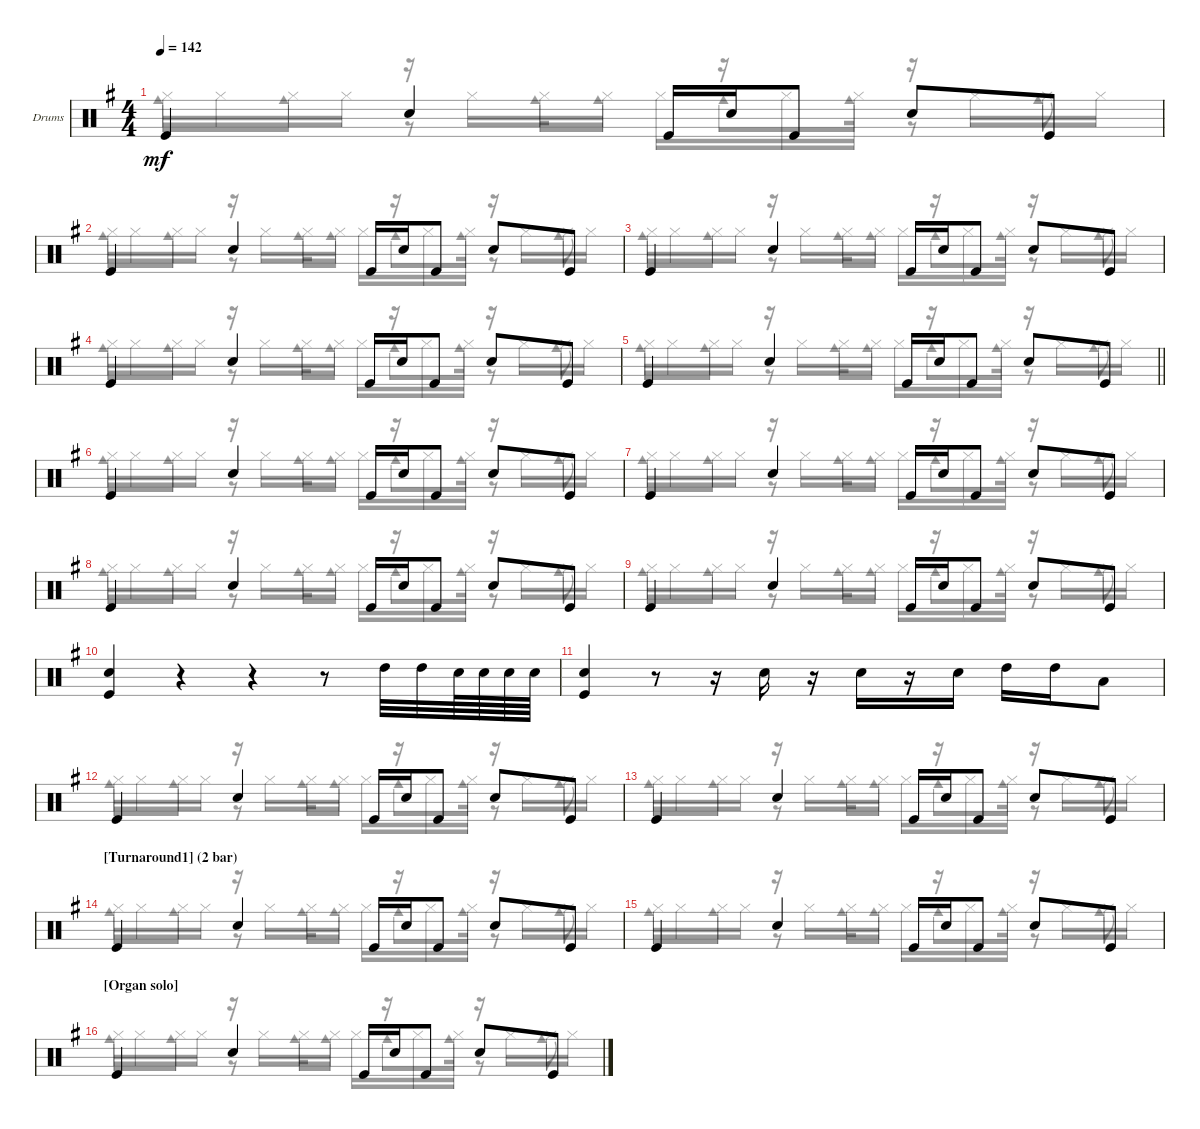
\bracketExtendMode groupsimilarinstruments
\firstSystemTrackNameOrientation horizontal
\otherSystemsTrackNameOrientation horizontal
\track ("Drumkit" "Drums") {instrument percussion}
\staff {score}
\articulation defaults
\voice
\ts (4 4)
\tempo 142
\clef neutral
\ks eminor "Kick (hit)".4{dy mf} "Snare (hit) 2".4 "Kick (hit)".16 "Snare (hit) 2".16 "Kick (hit)".8 "Snare (hit) 2".8 "Kick (hit)".8
|
"Kick (hit)".4 "Snare (hit) 2".4 "Kick (hit)".16 "Snare (hit) 2".16 "Kick (hit)".8 "Snare (hit) 2".8 "Kick (hit)".8 |
"Kick (hit)".4 "Snare (hit) 2".4 "Kick (hit)".16 "Snare (hit) 2".16 "Kick (hit)".8 "Snare (hit) 2".8 "Kick (hit)".8 |
"Kick (hit)".4 "Snare (hit) 2".4 "Kick (hit)".16 "Snare (hit) 2".16 "Kick (hit)".8 "Snare (hit) 2".8 "Kick (hit)".8 |
\barLineRight lightlight "Kick (hit)".4 "Snare (hit) 2".4 "Kick (hit)".16 "Snare (hit) 2".16 "Kick (hit)".8 "Snare (hit) 2".8 "Kick (hit)".8
|
"Kick (hit)".4 "Snare (hit) 2".4 "Kick (hit)".16 "Snare (hit) 2".16 "Kick (hit)".8 "Snare (hit) 2".8 "Kick (hit)".8 |
"Kick (hit)".4 "Snare (hit) 2".4 "Kick (hit)".16 "Snare (hit) 2".16 "Kick (hit)".8 "Snare (hit) 2".8 "Kick (hit)".8 |
"Kick (hit)".4 "Snare (hit) 2".4 "Kick (hit)".16 "Snare (hit) 2".16 "Kick (hit)".8 "Snare (hit) 2".8 "Kick (hit)".8 |
"Kick (hit)".4 "Snare (hit) 2".4 "Kick (hit)".16 "Snare (hit) 2".16 "Kick (hit)".8 "Snare (hit) 2".8 "Kick (hit)".8 |
("Kick (hit)" "Snare (hit) 2").4 r.4 r.4 r.8 "High Tom (hit)".32 "High Tom (hit)".32 "Snare (hit) 2".64 "Snare (hit) 2".64 "Snare (hit) 2".64 "Snare (hit) 2".64 |
("Kick (hit)" "Snare (hit) 2").4 r.8 r.16 "Snare (hit) 2".16 r.16 "Snare (hit) 2".16 r.16 "Snare (hit) 2".16 "High Tom (hit)".16 "High Tom (hit)".16 "Low Tom (hit)".8 |
"Kick (hit)".4 "Snare (hit) 2".4 "Kick (hit)".16 "Snare (hit) 2".16 "Kick (hit)".8 "Snare (hit) 2".8 "Kick (hit)".8 |
"Kick (hit)".4 "Snare (hit) 2".4 "Kick (hit)".16 "Snare (hit) 2".16 "Kick (hit)".8 "Snare (hit) 2".8 "Kick (hit)".8 |
\section ("" "[Turnaround1] (2 bar) ")
"Kick (hit)".4 "Snare (hit) 2".4 "Kick (hit)".16 "Snare (hit) 2".16 "Kick (hit)".8 "Snare (hit) 2".8 "Kick (hit)".8 |
"Kick (hit)".4 "Snare (hit) 2".4 "Kick (hit)".16 "Snare (hit) 2".16 "Kick (hit)".8 "Snare (hit) 2".8 "Kick (hit)".8 |
\section ("" "[Organ solo]")
"Kick (hit)".4 "Snare (hit) 2".4 "Kick (hit)".16 "Snare (hit) 2".16 "Kick (hit)".8 "Snare (hit) 2".8 "Kick (hit)".8
\voice
\clef neutral
\ottava regular
\simile none
\ks eminor "Hi-Hat (closed)".16{dy mf} "Hi-Hat (closed)".16 "Hi-Hat (closed)".16 "Hi-Hat (closed)".16
r.16 "Hi-Hat (closed)".16 "Hi-Hat (closed)".16 "Hi-Hat (closed)".16 "Hi-Hat (closed)".16 r.16 "Hi-Hat (closed)".16 "Hi-Hat (closed)".16 r.16 "Hi-Hat (closed)".16 "Hi-Hat (closed)".16 "Hi-Hat (closed)".16 |
"Hi-Hat (closed)".16 "Hi-Hat (closed)".16 "Hi-Hat (closed)".16 "Hi-Hat (closed)".16 r.16 "Hi-Hat (closed)".16 "Hi-Hat (closed)".16 "Hi-Hat (closed)".16 "Hi-Hat (closed)".16 r.16 "Hi-Hat (closed)".16 "Hi-Hat (closed)".16 r.16 "Hi-Hat (closed)".16 "Hi-Hat (closed)".16 "Hi-Hat (closed)".16 |
"Hi-Hat (closed)".16 "Hi-Hat (closed)".16 "Hi-Hat (closed)".16 "Hi-Hat (closed)".16 r.16 "Hi-Hat (closed)".16 "Hi-Hat (closed)".16 "Hi-Hat (closed)".16 "Hi-Hat (closed)".16 r.16 "Hi-Hat (closed)".16 "Hi-Hat (closed)".16 r.16 "Hi-Hat (closed)".16 "Hi-Hat (closed)".16 "Hi-Hat (closed)".16 |
"Hi-Hat (closed)".16 "Hi-Hat (closed)".16 "Hi-Hat (closed)".16 "Hi-Hat (closed)".16 r.16 "Hi-Hat (closed)".16 "Hi-Hat (closed)".16 "Hi-Hat (closed)".16 "Hi-Hat (closed)".16 r.16 "Hi-Hat (closed)".16 "Hi-Hat (closed)".16 r.16 "Hi-Hat (closed)".16 "Hi-Hat (closed)".16 "Hi-Hat (closed)".16 |
\barLineRight lightlight "Hi-Hat (closed)".16 "Hi-Hat (closed)".16 "Hi-Hat (closed)".16 "Hi-Hat (closed)".16
r.16 "Hi-Hat (closed)".16 "Hi-Hat (closed)".16 "Hi-Hat (closed)".16 "Hi-Hat (closed)".16 r.16 "Hi-Hat (closed)".16 "Hi-Hat (closed)".16 r.16 "Hi-Hat (closed)".16 "Hi-Hat (closed)".16 "Hi-Hat (closed)".16 |
"Hi-Hat (closed)".16 "Hi-Hat (closed)".16 "Hi-Hat (closed)".16 "Hi-Hat (closed)".16 r.16 "Hi-Hat (closed)".16 "Hi-Hat (closed)".16 "Hi-Hat (closed)".16 "Hi-Hat (closed)".16 r.16 "Hi-Hat (closed)".16 "Hi-Hat (closed)".16 r.16 "Hi-Hat (closed)".16 "Hi-Hat (closed)".16 "Hi-Hat (closed)".16 |
"Hi-Hat (closed)".16 "Hi-Hat (closed)".16 "Hi-Hat (closed)".16 "Hi-Hat (closed)".16 r.16 "Hi-Hat (closed)".16 "Hi-Hat (closed)".16 "Hi-Hat (closed)".16 "Hi-Hat (closed)".16 r.16 "Hi-Hat (closed)".16 "Hi-Hat (closed)".16 r.16 "Hi-Hat (closed)".16 "Hi-Hat (closed)".16 "Hi-Hat (closed)".16 |
"Hi-Hat (closed)".16 "Hi-Hat (closed)".16 "Hi-Hat (closed)".16 "Hi-Hat (closed)".16 r.16 "Hi-Hat (closed)".16 "Hi-Hat (closed)".16 "Hi-Hat (closed)".16 "Hi-Hat (closed)".16 r.16 "Hi-Hat (closed)".16 "Hi-Hat (closed)".16 r.16 "Hi-Hat (closed)".16 "Hi-Hat (closed)".16 "Hi-Hat (closed)".16 |
"Hi-Hat (closed)".16 "Hi-Hat (closed)".16 "Hi-Hat (closed)".16 "Hi-Hat (closed)".16 r.16 "Hi-Hat (closed)".16 "Hi-Hat (closed)".16 "Hi-Hat (closed)".16 "Hi-Hat (closed)".16 r.16 "Hi-Hat (closed)".16 "Hi-Hat (closed)".16 r.16 "Hi-Hat (closed)".16 "Hi-Hat (closed)".16 "Hi-Hat (closed)".16 |
|
|
"Hi-Hat (closed)".16 "Hi-Hat (closed)".16 "Hi-Hat (closed)".16 "Hi-Hat (closed)".16 r.16 "Hi-Hat (closed)".16 "Hi-Hat (closed)".16 "Hi-Hat (closed)".16 "Hi-Hat (closed)".16 r.16 "Hi-Hat (closed)".16 "Hi-Hat (closed)".16 r.16 "Hi-Hat (closed)".16 "Hi-Hat (closed)".16 "Hi-Hat (closed)".16 |
"Hi-Hat (closed)".16 "Hi-Hat (closed)".16 "Hi-Hat (closed)".16 "Hi-Hat (closed)".16 r.16 "Hi-Hat (closed)".16 "Hi-Hat (closed)".16 "Hi-Hat (closed)".16 "Hi-Hat (closed)".16 r.16 "Hi-Hat (closed)".16 "Hi-Hat (closed)".16 r.16 "Hi-Hat (closed)".16 "Hi-Hat (closed)".16 "Hi-Hat (closed)".16 |
"Hi-Hat (closed)".16 "Hi-Hat (closed)".16 "Hi-Hat (closed)".16 "Hi-Hat (closed)".16 r.16 "Hi-Hat (closed)".16 "Hi-Hat (closed)".16 "Hi-Hat (closed)".16 "Hi-Hat (closed)".16 r.16 "Hi-Hat (closed)".16 "Hi-Hat (closed)".16 r.16 "Hi-Hat (closed)".16 "Hi-Hat (closed)".16 "Hi-Hat (closed)".16 |
"Hi-Hat (closed)".16 "Hi-Hat (closed)".16 "Hi-Hat (closed)".16 "Hi-Hat (closed)".16 r.16 "Hi-Hat (closed)".16 "Hi-Hat (closed)".16 "Hi-Hat (closed)".16 "Hi-Hat (closed)".16 r.16 "Hi-Hat (closed)".16 "Hi-Hat (closed)".16 r.16 "Hi-Hat (closed)".16 "Hi-Hat (closed)".16 "Hi-Hat (closed)".16 |
"Hi-Hat (closed)".16 "Hi-Hat (closed)".16 "Hi-Hat (closed)".16 "Hi-Hat (closed)".16 r.16 "Hi-Hat (closed)".16 "Hi-Hat (closed)".16 "Hi-Hat (closed)".16 "Hi-Hat (closed)".16 r.16 "Hi-Hat (closed)".16 "Hi-Hat (closed)".16 r.16 "Hi-Hat (closed)".16 "Hi-Hat (closed)".16 "Hi-Hat (closed)".16
\voice
\clef neutral
\ottava regular
\simile none
\ks eminor "Cowbell medium (hit)".8{dy mf} "Cowbell medium (hit)".8
r.8 "Cowbell medium (hit)".16 "Cowbell medium (hit)".8 "Cowbell medium (hit)".8 "Cowbell medium (hit)".16 r.8 "Cowbell medium (hit)".8 |
"Cowbell medium (hit)".8 "Cowbell medium (hit)".8 r.8 "Cowbell medium (hit)".16 "Cowbell medium (hit)".8 "Cowbell medium (hit)".8 "Cowbell medium (hit)".16 r.8 "Cowbell medium (hit)".8 |
"Cowbell medium (hit)".8 "Cowbell medium (hit)".8 r.8 "Cowbell medium (hit)".16 "Cowbell medium (hit)".8 "Cowbell medium (hit)".8 "Cowbell medium (hit)".16 r.8 "Cowbell medium (hit)".8 |
"Cowbell medium (hit)".8 "Cowbell medium (hit)".8 r.8 "Cowbell medium (hit)".16 "Cowbell medium (hit)".8 "Cowbell medium (hit)".8 "Cowbell medium (hit)".16 r.8 "Cowbell medium (hit)".8 |
\barLineRight lightlight "Cowbell medium (hit)".8 "Cowbell medium (hit)".8
r.8 "Cowbell medium (hit)".16 "Cowbell medium (hit)".8 "Cowbell medium (hit)".8 "Cowbell medium (hit)".16 r.8 "Cowbell medium (hit)".8 |
"Cowbell medium (hit)".8 "Cowbell medium (hit)".8 r.8 "Cowbell medium (hit)".16 "Cowbell medium (hit)".8 "Cowbell medium (hit)".8 "Cowbell medium (hit)".16 r.8 "Cowbell medium (hit)".8 |
"Cowbell medium (hit)".8 "Cowbell medium (hit)".8 r.8 "Cowbell medium (hit)".16 "Cowbell medium (hit)".8 "Cowbell medium (hit)".8 "Cowbell medium (hit)".16 r.8 "Cowbell medium (hit)".8 |
"Cowbell medium (hit)".8 "Cowbell medium (hit)".8 r.8 "Cowbell medium (hit)".16 "Cowbell medium (hit)".8 "Cowbell medium (hit)".8 "Cowbell medium (hit)".16 r.8 "Cowbell medium (hit)".8 |
"Cowbell medium (hit)".8 "Cowbell medium (hit)".8 r.8 "Cowbell medium (hit)".16 "Cowbell medium (hit)".8 "Cowbell medium (hit)".8 "Cowbell medium (hit)".16 r.8 "Cowbell medium (hit)".8 |
|
|
"Cowbell medium (hit)".8 "Cowbell medium (hit)".8 r.8 "Cowbell medium (hit)".16 "Cowbell medium (hit)".8 "Cowbell medium (hit)".8 "Cowbell medium (hit)".16 r.8 "Cowbell medium (hit)".8 |
"Cowbell medium (hit)".8 "Cowbell medium (hit)".8 r.8 "Cowbell medium (hit)".16 "Cowbell medium (hit)".8 "Cowbell medium (hit)".8 "Cowbell medium (hit)".16 r.8 "Cowbell medium (hit)".8 |
"Cowbell medium (hit)".8 "Cowbell medium (hit)".8 r.8 "Cowbell medium (hit)".16 "Cowbell medium (hit)".8 "Cowbell medium (hit)".8 "Cowbell medium (hit)".16 r.8 "Cowbell medium (hit)".8 |
"Cowbell medium (hit)".8 "Cowbell medium (hit)".8 r.8 "Cowbell medium (hit)".16 "Cowbell medium (hit)".8 "Cowbell medium (hit)".8 "Cowbell medium (hit)".16 r.8 "Cowbell medium (hit)".8 |
"Cowbell medium (hit)".8 "Cowbell medium (hit)".8 r.8 "Cowbell medium (hit)".16 "Cowbell medium (hit)".8 "Cowbell medium (hit)".8 "Cowbell medium (hit)".16 r.8 "Cowbell medium (hit)".8
